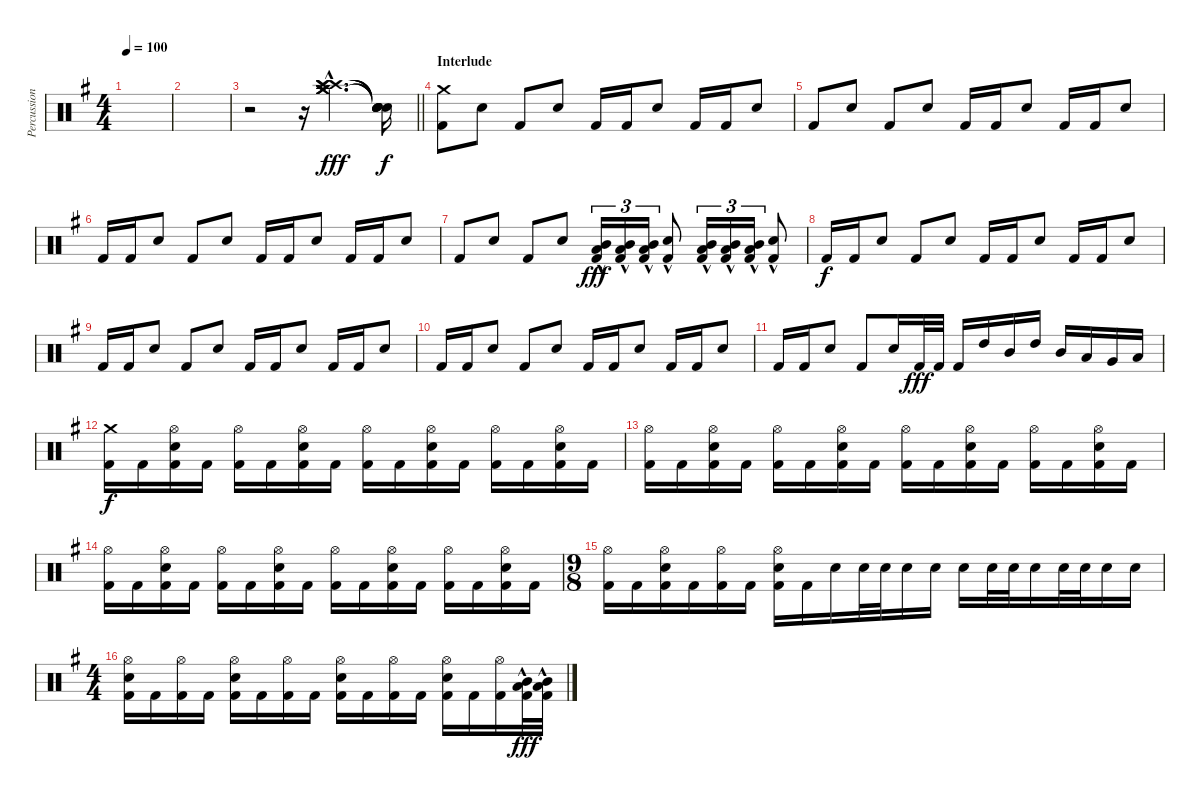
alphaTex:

\track ("Percussion" "Percussion") {instrument percussion}
\staff {score}
\articulation defaults
\ts (4 4)
\tempo 100
\clef neutral
\ks eminor
|
|
\barLineRight lightlight
r.2{volume 0} r.16 ("Crash high (hit)"{hac} "Crash medium (hit)"{hac} "Crash high (hit)"{hac} "Crash medium (hit)"{hac} "Crash high (hit)"{hac} "Crash medium (hit)"{hac}).4{d dy fff volume 16} ("Snare (hit)"{t} "Snare (hit)"{t} "Snare (hit)"{t} "Snare (hit)"{t} "Snare (hit)"{t}).16{dy f} |
\section ("" "Interlude")
("Crash medium (hit)" "Kick (hit) 2").8 "Snare (hit) 2".8 "Kick (hit) 2".8 "Snare (hit) 2".8 "Kick (hit) 2".16 "Kick (hit) 2".16 "Snare (hit) 2".8 "Kick (hit) 2".16 "Kick (hit) 2".16 "Snare (hit) 2".8 |
"Kick (hit) 2".8 "Snare (hit) 2".8 "Kick (hit) 2".8 "Snare (hit) 2".8 "Kick (hit) 2".16 "Kick (hit) 2".16 "Snare (hit) 2".8 "Kick (hit) 2".16 "Kick (hit) 2".16 "Snare (hit) 2".8 |
"Kick (hit) 2".16 "Kick (hit) 2".16 "Snare (hit) 2".8 "Kick (hit) 2".8 "Snare (hit) 2".8 "Kick (hit) 2".16 "Kick (hit) 2".16 "Snare (hit) 2".8 "Kick (hit) 2".16 "Kick (hit) 2".16 "Snare (hit) 2".8 |
"Kick (hit) 2".8 "Snare (hit) 2".8 "Kick (hit) 2".8 "Snare (hit) 2".8 ("Low Tom (hit)"{hac} "Mid Tom (hit)" "Kick (hit) 2"{hac}).16{tu (3 2) dy fff} ("Low Tom (hit)"{hac} "Mid Tom (hit)" "Kick (hit) 2"{hac}).16{tu (3 2)} ("Low Tom (hit)"{hac} "Mid Tom (hit)" "Kick (hit) 2"{hac}).16{tu (3 2)} ("Snare (hit) 2"{hac} "Kick (hit) 2"{hac}).8 ("Low Tom (hit)"{hac} "Mid Tom (hit)" "Kick (hit) 2"{hac}).16{tu (3 2)} ("Low Tom (hit)"{hac} "Mid Tom (hit)" "Kick (hit) 2"{hac}).16{tu (3 2)} ("Low Tom (hit)"{hac} "Mid Tom (hit)" "Kick (hit) 2"{hac}).16{tu (3 2)} ("Snare (hit) 2"{hac} "Kick (hit) 2"{hac}).8 |
"Kick (hit) 2".16{dy f} "Kick (hit) 2".16 "Snare (hit) 2".8 "Kick (hit) 2".8 "Snare (hit) 2".8 "Kick (hit) 2".16 "Kick (hit) 2".16 "Snare (hit) 2".8 "Kick (hit) 2".16 "Kick (hit) 2".16 "Snare (hit) 2".8 |
"Kick (hit) 2".16 "Kick (hit) 2".16 "Snare (hit) 2".8 "Kick (hit) 2".8 "Snare (hit) 2".8 "Kick (hit) 2".16 "Kick (hit) 2".16 "Snare (hit) 2".8 "Kick (hit) 2".16 "Kick (hit) 2".16 "Snare (hit) 2".8 |
"Kick (hit) 2".16 "Kick (hit) 2".16 "Snare (hit) 2".8 "Kick (hit) 2".8 "Snare (hit) 2".8 "Kick (hit) 2".16 "Kick (hit) 2".16 "Snare (hit) 2".8 "Kick (hit) 2".16 "Kick (hit) 2".16 "Snare (hit) 2".8 |
"Kick (hit) 2".16 "Kick (hit) 2".16 "Snare (hit) 2".8 "Kick (hit) 2".8 "Snare (hit) 2".16 "Kick (hit) 2".32{dy fff} "Kick (hit) 2".32 "Kick (hit) 2".16 "High Tom (hit)".16 "Mid Tom (hit)".16 "High Tom (hit)".16 "Mid Tom (hit)".16 "Low Tom (hit)".16 "Very Low Tom (hit)".16 "Low Floor Tom (hit)".16 |
("Crash medium (hit)" "Kick (hit) 2").16{dy f} "Kick (hit) 2".16 ("Hi-Hat (open)" "Snare (hit) 2" "Kick (hit) 2").16 "Kick (hit) 2".16 ("Hi-Hat (open)" "Kick (hit) 2").16 "Kick (hit) 2".16 ("Hi-Hat (open)" "Snare (hit) 2" "Kick (hit) 2").16 "Kick (hit) 2".16 ("Hi-Hat (open)" "Kick (hit) 2").16 "Kick (hit) 2".16 ("Hi-Hat (open)" "Snare (hit) 2" "Kick (hit) 2").16 "Kick (hit) 2".16 ("Hi-Hat (open)" "Kick (hit) 2").16 "Kick (hit) 2".16 ("Hi-Hat (open)" "Snare (hit) 2" "Kick (hit) 2").16 "Kick (hit) 2".16 |
("Hi-Hat (open)" "Kick (hit) 2").16 "Kick (hit) 2".16 ("Hi-Hat (open)" "Snare (hit) 2" "Kick (hit) 2").16 "Kick (hit) 2".16 ("Hi-Hat (open)" "Kick (hit) 2").16 "Kick (hit) 2".16 ("Hi-Hat (open)" "Snare (hit) 2" "Kick (hit) 2").16 "Kick (hit) 2".16 ("Hi-Hat (open)" "Kick (hit) 2").16 "Kick (hit) 2".16 ("Hi-Hat (open)" "Snare (hit) 2" "Kick (hit) 2").16 "Kick (hit) 2".16 ("Hi-Hat (open)" "Kick (hit) 2").16 "Kick (hit) 2".16 ("Hi-Hat (open)" "Snare (hit) 2" "Kick (hit) 2").16 "Kick (hit) 2".16 |
("Hi-Hat (open)" "Kick (hit) 2").16 "Kick (hit) 2".16 ("Hi-Hat (open)" "Snare (hit) 2" "Kick (hit) 2").16 "Kick (hit) 2".16 ("Hi-Hat (open)" "Kick (hit) 2").16 "Kick (hit) 2".16 ("Hi-Hat (open)" "Snare (hit) 2" "Kick (hit) 2").16 "Kick (hit) 2".16 ("Hi-Hat (open)" "Kick (hit) 2").16 "Kick (hit) 2".16 ("Hi-Hat (open)" "Snare (hit) 2" "Kick (hit) 2").16 "Kick (hit) 2".16 ("Hi-Hat (open)" "Kick (hit) 2").16 "Kick (hit) 2".16 ("Hi-Hat (open)" "Snare (hit) 2" "Kick (hit) 2").16 "Kick (hit) 2".16 |
\ts (9 8)
("Hi-Hat (open)" "Kick (hit) 2").16 "Kick (hit) 2".16 ("Hi-Hat (open)" "Snare (hit) 2" "Kick (hit) 2").16 "Kick (hit) 2".16 ("Hi-Hat (open)" "Kick (hit) 2").16 "Kick (hit) 2".16 ("Hi-Hat (open)" "Snare (hit) 2" "Kick (hit) 2").16 "Kick (hit) 2".16 "Snare (hit) 2".16 "Snare (hit) 2".32 "Snare (hit) 2".32 "Snare (hit) 2".16 "Snare (hit) 2".16 "Snare (hit) 2".16 "Snare (hit) 2".32 "Snare (hit) 2".32 "Snare (hit) 2".16 "Snare (hit) 2".32 "Snare (hit) 2".32 "Snare (hit) 2".16 "Snare (hit) 2".16 |
\ts (4 4)
("Hi-Hat (open)" "Snare (hit) 2" "Kick (hit) 2").16 "Kick (hit) 2".16 ("Hi-Hat (open)" "Kick (hit) 2").16 "Kick (hit) 2".16 ("Hi-Hat (open)" "Snare (hit) 2" "Kick (hit) 2").16 "Kick (hit) 2".16 ("Hi-Hat (open)" "Kick (hit) 2").16 "Kick (hit) 2".16 ("Hi-Hat (open)" "Snare (hit) 2" "Kick (hit) 2").16 "Kick (hit) 2".16 ("Hi-Hat (open)" "Kick (hit) 2").16 "Kick (hit) 2".16 ("Hi-Hat (open)" "Snare (hit) 2" "Kick (hit) 2").16 "Kick (hit) 2".16 ("Hi-Hat (open)" "Kick (hit) 2").16 ("Mid Tom (hit)"{hac} "Low Tom (hit)"{hac} "Kick (hit) 2"{hac}).32{dy fff} ("Mid Tom (hit)"{hac} "Low Tom (hit)"{hac} "Kick (hit) 2"{hac}).32
